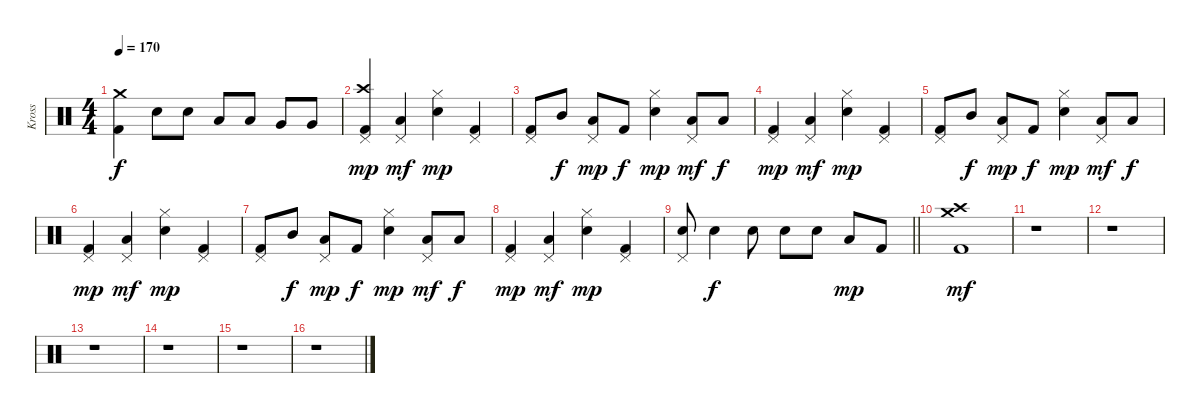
\track ("Kross" "Kross") {instrument percussion}
\staff {score}
\articulation defaults
\ts (4 4)
\tempo 170
\clef neutral
\ks c
("Crash medium (hit)" "Kick (hit) 2").4{dy f} "Electric Snare (hit)".8 "Electric Snare (hit)".8 "Low Tom (hit)".8 "Low Tom (hit)".8 "Very Low Tom (hit)".8 "Very Low Tom (hit)".8 |
("Crash high (hit)" "Pedal Hi-Hat (hit)" "Kick (hit) 2").4{dy mp} ("Pedal Hi-Hat (hit)" "Low Floor Tom (hit)").4{dy mf} ("Hi-Hat (closed)" "Electric Snare (hit)").4{dy mp} ("Pedal Hi-Hat (hit)" "Kick (hit) 2").4 |
("Pedal Hi-Hat (hit)" "Kick (hit) 2").8 "Mid Tom (hit)".8{dy f} ("Pedal Hi-Hat (hit)" "Low Floor Tom (hit)").8{dy mp} "Kick (hit) 2".8{dy f} ("Hi-Hat (closed)" "Electric Snare (hit)").4{dy mp} ("Pedal Hi-Hat (hit)" "Low Floor Tom (hit)").8{dy mf} "Low Floor Tom (hit)".8{dy f} |
("Pedal Hi-Hat (hit)" "Kick (hit) 2").4{dy mp} ("Pedal Hi-Hat (hit)" "Low Floor Tom (hit)").4{dy mf} ("Hi-Hat (closed)" "Electric Snare (hit)").4{dy mp} ("Pedal Hi-Hat (hit)" "Kick (hit) 2").4 |
("Pedal Hi-Hat (hit)" "Kick (hit) 2").8 "Mid Tom (hit)".8{dy f} ("Pedal Hi-Hat (hit)" "Low Floor Tom (hit)").8{dy mp} "Kick (hit) 2".8{dy f} ("Hi-Hat (closed)" "Electric Snare (hit)").4{dy mp} ("Pedal Hi-Hat (hit)" "Low Floor Tom (hit)").8{dy mf} "Low Floor Tom (hit)".8{dy f} |
("Pedal Hi-Hat (hit)" "Kick (hit) 2").4{dy mp} ("Pedal Hi-Hat (hit)" "Low Floor Tom (hit)").4{dy mf} ("Hi-Hat (closed)" "Electric Snare (hit)").4{dy mp} ("Pedal Hi-Hat (hit)" "Kick (hit) 2").4 |
("Pedal Hi-Hat (hit)" "Kick (hit) 2").8 "Mid Tom (hit)".8{dy f} ("Pedal Hi-Hat (hit)" "Low Floor Tom (hit)").8{dy mp} "Kick (hit) 2".8{dy f} ("Hi-Hat (closed)" "Electric Snare (hit)").4{dy mp} ("Pedal Hi-Hat (hit)" "Low Floor Tom (hit)").8{dy mf} "Low Floor Tom (hit)".8{dy f} |
("Pedal Hi-Hat (hit)" "Kick (hit) 2").4{dy mp} ("Pedal Hi-Hat (hit)" "Low Floor Tom (hit)").4{dy mf} ("Hi-Hat (closed)" "Electric Snare (hit)").4{dy mp} ("Pedal Hi-Hat (hit)" "Kick (hit) 2").4 |
\barLineRight lightlight
("Pedal Hi-Hat (hit)" "Electric Snare (hit)").8 "Electric Snare (hit)".4{dy f} "Electric Snare (hit)".8 "Electric Snare (hit)".8 "Electric Snare (hit)".8 "Low Floor Tom (hit)".8{dy mp} "Kick (hit) 2".8 |
("Crash medium (hit)" "Crash high (hit)" "Kick (hit) 2").1{dy mf} |
r.1 |
r.1 |
r.1 |
r.1 |
r.1 |
r.1
